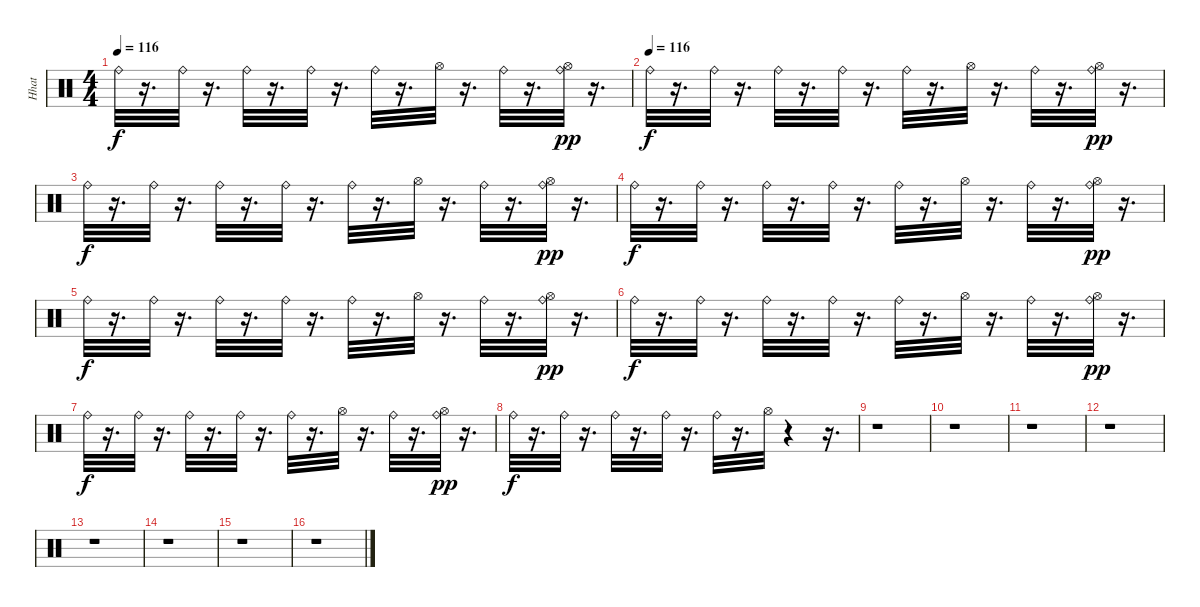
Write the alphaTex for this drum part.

\track ("Hhat" "Hhat") {instrument percussion}
\staff {score}
\articulation defaults
\ts (4 4)
\tempo 116
\clef neutral
\ks c "Ride (bell)".32{dy f}
r.16{d} "Ride (bell)".32 r.16{d} "Ride (bell)".32 r.16{d} "Ride (bell)".32 r.16{d} "Ride (bell)".32 r.16{d} "Hi-Hat (open)".32 r.16{d} "Ride (bell)".32 r.16{d} ("Ride (bell)" "Hi-Hat (open)").32{dy pp} r.16{d} |
\tempo (116)
"Ride (bell)".32{dy f} r.16{d} "Ride (bell)".32 r.16{d} "Ride (bell)".32 r.16{d} "Ride (bell)".32 r.16{d} "Ride (bell)".32 r.16{d} "Hi-Hat (open)".32 r.16{d} "Ride (bell)".32 r.16{d} ("Ride (bell)" "Hi-Hat (open)").32{dy pp} r.16{d} |
"Ride (bell)".32{dy f} r.16{d} "Ride (bell)".32 r.16{d} "Ride (bell)".32 r.16{d} "Ride (bell)".32 r.16{d} "Ride (bell)".32 r.16{d} "Hi-Hat (open)".32 r.16{d} "Ride (bell)".32 r.16{d} ("Ride (bell)" "Hi-Hat (open)").32{dy pp} r.16{d} |
"Ride (bell)".32{dy f} r.16{d} "Ride (bell)".32 r.16{d} "Ride (bell)".32 r.16{d} "Ride (bell)".32 r.16{d} "Ride (bell)".32 r.16{d} "Hi-Hat (open)".32 r.16{d} "Ride (bell)".32 r.16{d} ("Ride (bell)" "Hi-Hat (open)").32{dy pp} r.16{d} |
"Ride (bell)".32{dy f} r.16{d} "Ride (bell)".32 r.16{d} "Ride (bell)".32 r.16{d} "Ride (bell)".32 r.16{d} "Ride (bell)".32 r.16{d} "Hi-Hat (open)".32 r.16{d} "Ride (bell)".32 r.16{d} ("Ride (bell)" "Hi-Hat (open)").32{dy pp} r.16{d} |
"Ride (bell)".32{dy f} r.16{d} "Ride (bell)".32 r.16{d} "Ride (bell)".32 r.16{d} "Ride (bell)".32 r.16{d} "Ride (bell)".32 r.16{d} "Hi-Hat (open)".32 r.16{d} "Ride (bell)".32 r.16{d} ("Ride (bell)" "Hi-Hat (open)").32{dy pp} r.16{d} |
"Ride (bell)".32{dy f} r.16{d} "Ride (bell)".32 r.16{d} "Ride (bell)".32 r.16{d} "Ride (bell)".32 r.16{d} "Ride (bell)".32 r.16{d} "Hi-Hat (open)".32 r.16{d} "Ride (bell)".32 r.16{d} ("Ride (bell)" "Hi-Hat (open)").32{dy pp} r.16{d} |
"Ride (bell)".32{dy f} r.16{d} "Ride (bell)".32 r.16{d} "Ride (bell)".32 r.16{d} "Ride (bell)".32 r.16{d} "Ride (bell)".32 r.16{d} "Hi-Hat (open)".32 r.4 r.16{d} |
r.1 |
r.1 |
r.1 |
r.1 |
r.1 |
r.1 |
r.1 |
r.1
